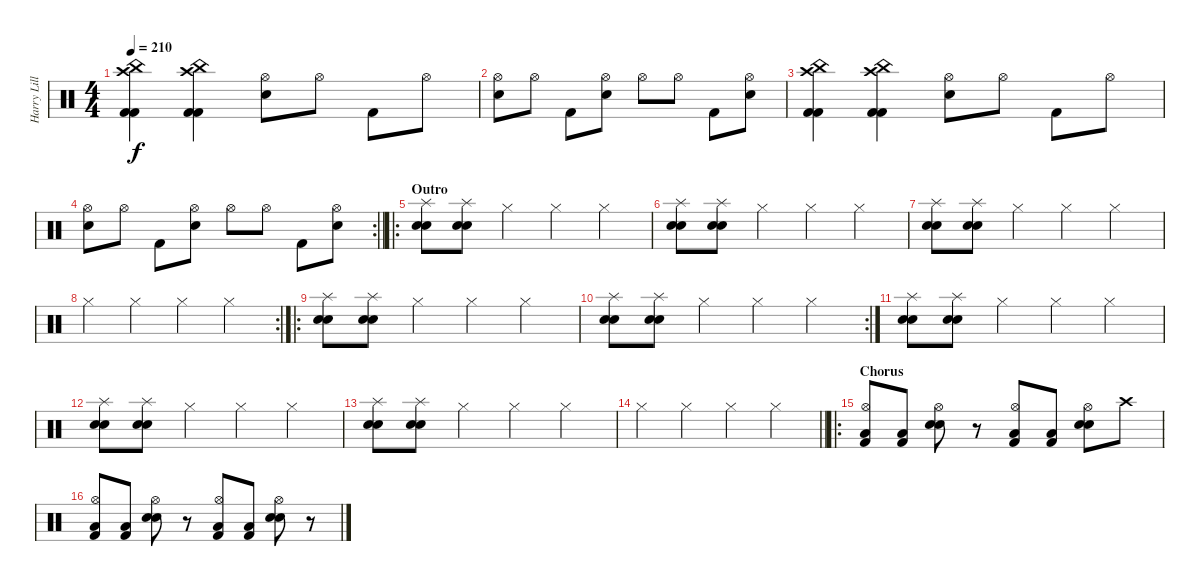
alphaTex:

\track ("Harry Lillevars" "Harry Lill") {instrument percussion}
\staff {score}
\articulation defaults
\ts (4 4)
\tempo 210
\clef neutral
\ks c
("Kick (hit) 2" "Crash high (hit)" "China (hit)" "Kick (hit) 2").4{dy f} ("Kick (hit) 2" "Crash high (hit)" "China (hit)" "Kick (hit) 2").4 ("Hi-Hat (open)" "Electric Snare (hit)").8 "Hi-Hat (open)".8 "Kick (hit) 2".8 "Hi-Hat (open)".8 |
("Hi-Hat (open)" "Electric Snare (hit)").8 "Hi-Hat (open)".8 "Kick (hit) 2".8 ("Hi-Hat (open)" "Electric Snare (hit)").8 "Hi-Hat (open)".8 "Hi-Hat (open)".8 "Kick (hit) 2".8 ("Hi-Hat (open)" "Electric Snare (hit)").8 |
("Kick (hit) 2" "Crash high (hit)" "China (hit)" "Kick (hit) 2").4 ("Kick (hit) 2" "Crash high (hit)" "China (hit)" "Kick (hit) 2").4 ("Hi-Hat (open)" "Electric Snare (hit)").8 "Hi-Hat (open)".8 "Kick (hit) 2".8 "Hi-Hat (open)".8 |
\rc 2
\barLineRight lightlight
("Hi-Hat (open)" "Electric Snare (hit)").8 "Hi-Hat (open)".8 "Kick (hit) 2".8 ("Hi-Hat (open)" "Electric Snare (hit)").8 "Hi-Hat (open)".8 "Hi-Hat (open)".8 "Kick (hit) 2".8 ("Hi-Hat (open)" "Electric Snare (hit)").8 |
\ro
\section ("" "Outro")
("Splash (hit)" "Snare (hit) 2" "Electric Snare (hit)").8 ("Splash (hit)" "Snare (hit) 2" "Electric Snare (hit)").8 "Hi-Hat (closed)".4 "Hi-Hat (closed)".4 "Hi-Hat (closed)".4 |
("Splash (hit)" "Snare (hit) 2" "Electric Snare (hit)").8 ("Splash (hit)" "Snare (hit) 2" "Electric Snare (hit)").8 "Hi-Hat (closed)".4 "Hi-Hat (closed)".4 "Hi-Hat (closed)".4 |
("Splash (hit)" "Snare (hit) 2" "Electric Snare (hit)").8 ("Splash (hit)" "Snare (hit) 2" "Electric Snare (hit)").8 "Hi-Hat (closed)".4 "Hi-Hat (closed)".4 "Hi-Hat (closed)".4 |
\rc 2 "Hi-Hat (closed)".4 "Hi-Hat (closed)".4 "Hi-Hat (closed)".4 "Hi-Hat (closed)".4
|
\ro
("Splash (hit)" "Snare (hit) 2" "Electric Snare (hit)").8 ("Splash (hit)" "Snare (hit) 2" "Electric Snare (hit)").8 "Hi-Hat (closed)".4 "Hi-Hat (closed)".4 "Hi-Hat (closed)".4 |
\rc 2
("Splash (hit)" "Snare (hit) 2" "Electric Snare (hit)").8 ("Splash (hit)" "Snare (hit) 2" "Electric Snare (hit)").8 "Hi-Hat (closed)".4 "Hi-Hat (closed)".4 "Hi-Hat (closed)".4 |
("Splash (hit)" "Snare (hit) 2" "Electric Snare (hit)").8 ("Splash (hit)" "Snare (hit) 2" "Electric Snare (hit)").8 "Hi-Hat (closed)".4 "Hi-Hat (closed)".4 "Hi-Hat (closed)".4 |
("Splash (hit)" "Snare (hit) 2" "Electric Snare (hit)").8 ("Splash (hit)" "Snare (hit) 2" "Electric Snare (hit)").8 "Hi-Hat (closed)".4 "Hi-Hat (closed)".4 "Hi-Hat (closed)".4 |
("Splash (hit)" "Snare (hit) 2" "Electric Snare (hit)").8 ("Splash (hit)" "Snare (hit) 2" "Electric Snare (hit)").8 "Hi-Hat (closed)".4 "Hi-Hat (closed)".4 "Hi-Hat (closed)".4 |
\barLineRight lightlight "Hi-Hat (closed)".4 "Hi-Hat (closed)".4 "Hi-Hat (closed)".4 "Hi-Hat (closed)".4
|
\ro
\section ("" "Chorus")
("Hi-Hat (open)" "Kick (hit) 2" "Low Floor Tom (hit)").8 ("Kick (hit) 2" "Low Floor Tom (hit)").8 ("Hi-Hat (open)" "Electric Snare (hit)" "Electric Snare (hit)").8 r.8 ("Hi-Hat (open)" "Kick (hit) 2" "Low Floor Tom (hit)").8 ("Kick (hit) 2" "Low Floor Tom (hit)").8 ("Hi-Hat (open)" "Electric Snare (hit)" "Electric Snare (hit)").8 "Crash high (hit)".8 |
("Hi-Hat (open)" "Kick (hit) 2" "Low Floor Tom (hit)").8 ("Kick (hit) 2" "Low Floor Tom (hit)").8 ("Hi-Hat (open)" "Electric Snare (hit)" "Electric Snare (hit)").8 r.8 ("Hi-Hat (open)" "Kick (hit) 2" "Low Floor Tom (hit)").8 ("Kick (hit) 2" "Low Floor Tom (hit)").8 ("Hi-Hat (open)" "Electric Snare (hit)" "Electric Snare (hit)").8 r.8
